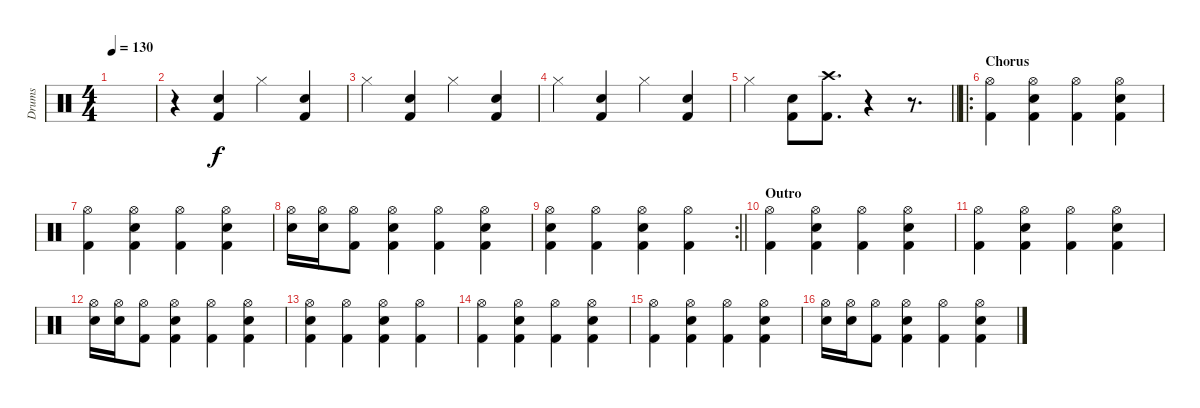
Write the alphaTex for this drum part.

\track ("Drums" "Drums") {instrument percussion}
\staff {score}
\articulation defaults
\ts (4 4)
\tempo 130
\clef neutral
\ks c
|
r.4 ("Snare (hit) 2" "Kick (hit) 2").4 "Hi-Hat (closed)".4 ("Snare (hit) 2" "Kick (hit) 2").4 |
"Hi-Hat (closed)".4 ("Snare (hit) 2" "Kick (hit) 2").4 "Hi-Hat (closed)".4 ("Snare (hit) 2" "Kick (hit) 2").4 |
"Hi-Hat (closed)".4 ("Snare (hit) 2" "Kick (hit) 2").4 "Hi-Hat (closed)".4 ("Snare (hit) 2" "Kick (hit) 2").4 |
\barLineRight lightlight "Hi-Hat (closed)".4
("Snare (hit) 2" "Kick (hit) 2").8 ("Crash high (hit)" "Kick (hit) 2").8{d} r.4 r.8{d} |
\ro
\section ("" "Chorus")
("Hi-Hat (open)" "Kick (hit) 2").4 ("Hi-Hat (open)" "Snare (hit) 2" "Kick (hit) 2").4 ("Hi-Hat (open)" "Kick (hit) 2").4 ("Hi-Hat (open)" "Snare (hit) 2" "Kick (hit) 2").4 |
("Hi-Hat (open)" "Kick (hit) 2").4 ("Hi-Hat (open)" "Snare (hit) 2" "Kick (hit) 2").4 ("Hi-Hat (open)" "Kick (hit) 2").4 ("Hi-Hat (open)" "Snare (hit) 2" "Kick (hit) 2").4 |
("Hi-Hat (open)" "Snare (hit) 2").16 ("Hi-Hat (open)" "Snare (hit) 2").16 ("Hi-Hat (open)" "Kick (hit) 2").8 ("Hi-Hat (open)" "Snare (hit) 2" "Kick (hit) 2").4 ("Hi-Hat (open)" "Kick (hit) 2").4 ("Hi-Hat (open)" "Snare (hit) 2" "Kick (hit) 2").4 |
\rc 2
\barLineRight lightlight
("Hi-Hat (open)" "Snare (hit) 2" "Kick (hit) 2").4 ("Hi-Hat (open)" "Kick (hit) 2").4 ("Hi-Hat (open)" "Snare (hit) 2" "Kick (hit) 2").4 ("Hi-Hat (open)" "Kick (hit) 2").4 |
\section ("" "Outro")
("Hi-Hat (open)" "Kick (hit) 2").4 ("Hi-Hat (open)" "Snare (hit) 2" "Kick (hit) 2").4 ("Hi-Hat (open)" "Kick (hit) 2").4 ("Hi-Hat (open)" "Snare (hit) 2" "Kick (hit) 2").4 |
("Hi-Hat (open)" "Kick (hit) 2").4 ("Hi-Hat (open)" "Snare (hit) 2" "Kick (hit) 2").4 ("Hi-Hat (open)" "Kick (hit) 2").4 ("Hi-Hat (open)" "Snare (hit) 2" "Kick (hit) 2").4 |
("Hi-Hat (open)" "Snare (hit) 2").16 ("Hi-Hat (open)" "Snare (hit) 2").16 ("Hi-Hat (open)" "Kick (hit) 2").8 ("Hi-Hat (open)" "Snare (hit) 2" "Kick (hit) 2").4 ("Hi-Hat (open)" "Kick (hit) 2").4 ("Hi-Hat (open)" "Snare (hit) 2" "Kick (hit) 2").4 |
("Hi-Hat (open)" "Snare (hit) 2" "Kick (hit) 2").4 ("Hi-Hat (open)" "Kick (hit) 2").4 ("Hi-Hat (open)" "Snare (hit) 2" "Kick (hit) 2").4 ("Hi-Hat (open)" "Kick (hit) 2").4 |
("Hi-Hat (open)" "Kick (hit) 2").4 ("Hi-Hat (open)" "Snare (hit) 2" "Kick (hit) 2").4 ("Hi-Hat (open)" "Kick (hit) 2").4 ("Hi-Hat (open)" "Snare (hit) 2" "Kick (hit) 2").4 |
("Hi-Hat (open)" "Kick (hit) 2").4 ("Hi-Hat (open)" "Snare (hit) 2" "Kick (hit) 2").4 ("Hi-Hat (open)" "Kick (hit) 2").4 ("Hi-Hat (open)" "Snare (hit) 2" "Kick (hit) 2").4 |
("Hi-Hat (open)" "Snare (hit) 2").16 ("Hi-Hat (open)" "Snare (hit) 2").16 ("Hi-Hat (open)" "Kick (hit) 2").8 ("Hi-Hat (open)" "Snare (hit) 2" "Kick (hit) 2").4 ("Hi-Hat (open)" "Kick (hit) 2").4 ("Hi-Hat (open)" "Snare (hit) 2" "Kick (hit) 2").4
